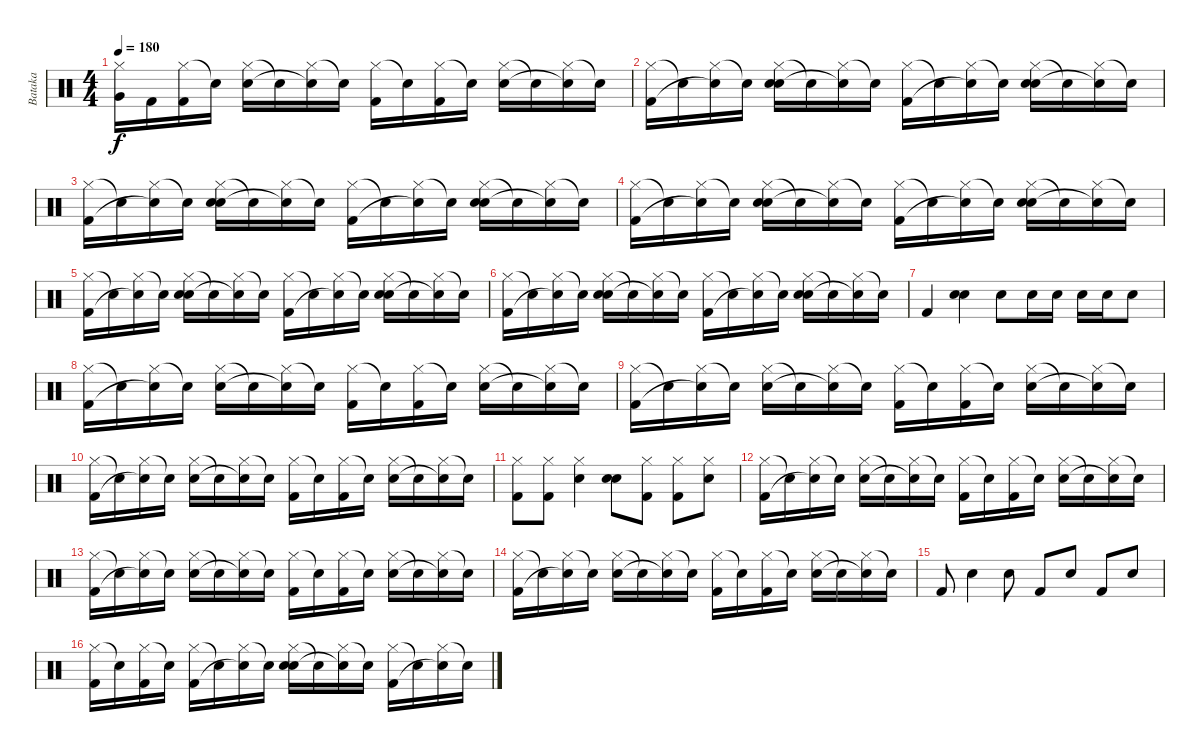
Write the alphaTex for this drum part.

\track ("Bataka" "Bataka") {instrument percussion}
\staff {score}
\articulation defaults
\ts (4 4)
\tempo 180
\clef neutral
\ks c
("Hi-Hat (closed)" "Very Low Tom (hit)").16{dy f} "Kick (hit) 2".16 ("Hi-Hat (closed)" "Kick (hit) 2").16 "Snare (hit)"{t}.16 ("Hi-Hat (closed)" "Electric Snare (hit)").16 "Snare (hit)"{t}.16 ("Hi-Hat (closed)" "Electric Snare (hit)"{t}).16 "Snare (hit)"{t}.16 ("Hi-Hat (closed)" "Kick (hit) 2").16 "Snare (hit)"{t}.16 ("Hi-Hat (closed)" "Kick (hit) 2").16 "Snare (hit)"{t}.16 ("Hi-Hat (closed)" "Electric Snare (hit)").16 "Snare (hit)"{t}.16 ("Hi-Hat (closed)" "Snare (hit)"{t}).16 "Snare (hit)"{t}.16 |
("Hi-Hat (closed)" "Kick (hit) 2").16 "Snare (hit)"{t}.16 ("Hi-Hat (closed)" "Snare (hit)"{t}).16 "Snare (hit)"{t}.16 ("Hi-Hat (closed)" "Electric Snare (hit)" "Snare (hit) 2").16 "Snare (hit)"{t}.16 ("Hi-Hat (closed)" "Snare (hit)"{t}).16 "Snare (hit)"{t}.16 ("Hi-Hat (closed)" "Kick (hit) 2").16 "Snare (hit)"{t}.16 ("Hi-Hat (closed)" "Snare (hit)"{t}).16 "Snare (hit)"{t}.16 ("Hi-Hat (closed)" "Electric Snare (hit)" "Snare (hit) 2").16 "Snare (hit)"{t}.16 ("Hi-Hat (closed)" "Snare (hit)"{t}).16 "Snare (hit)"{t}.16 |
("Hi-Hat (closed)" "Kick (hit) 2").16 "Snare (hit)"{t}.16 ("Hi-Hat (closed)" "Snare (hit)"{t}).16 "Snare (hit)"{t}.16 ("Hi-Hat (closed)" "Electric Snare (hit)" "Snare (hit) 2").16 "Snare (hit)"{t}.16 ("Hi-Hat (closed)" "Snare (hit)"{t}).16 "Snare (hit)"{t}.16 ("Hi-Hat (closed)" "Kick (hit) 2").16 "Snare (hit)"{t}.16 ("Hi-Hat (closed)" "Snare (hit)"{t}).16 "Snare (hit)"{t}.16 ("Hi-Hat (closed)" "Electric Snare (hit)" "Snare (hit) 2").16 "Snare (hit)"{t}.16 ("Hi-Hat (closed)" "Snare (hit)"{t}).16 "Snare (hit)"{t}.16 |
("Hi-Hat (closed)" "Kick (hit) 2").16 "Snare (hit)"{t}.16 ("Hi-Hat (closed)" "Snare (hit)"{t}).16 "Snare (hit)"{t}.16 ("Hi-Hat (closed)" "Electric Snare (hit)" "Snare (hit) 2").16 "Snare (hit)"{t}.16 ("Hi-Hat (closed)" "Snare (hit)"{t}).16 "Snare (hit)"{t}.16 ("Hi-Hat (closed)" "Kick (hit) 2").16 "Snare (hit)"{t}.16 ("Hi-Hat (closed)" "Snare (hit)"{t}).16 "Snare (hit)"{t}.16 ("Hi-Hat (closed)" "Electric Snare (hit)" "Snare (hit) 2").16 "Snare (hit)"{t}.16 ("Hi-Hat (closed)" "Snare (hit)"{t}).16 "Snare (hit)"{t}.16 |
("Hi-Hat (closed)" "Kick (hit) 2").16 "Snare (hit)"{t}.16 ("Hi-Hat (closed)" "Snare (hit)"{t}).16 "Snare (hit)"{t}.16 ("Hi-Hat (closed)" "Electric Snare (hit)" "Snare (hit) 2").16 "Snare (hit)"{t}.16 ("Hi-Hat (closed)" "Snare (hit)"{t}).16 "Snare (hit)"{t}.16 ("Hi-Hat (closed)" "Kick (hit) 2").16 "Snare (hit)"{t}.16 ("Hi-Hat (closed)" "Snare (hit)"{t}).16 "Snare (hit)"{t}.16 ("Hi-Hat (closed)" "Electric Snare (hit)" "Snare (hit) 2").16 "Snare (hit)"{t}.16 ("Hi-Hat (closed)" "Snare (hit)"{t}).16 "Snare (hit)"{t}.16 |
("Hi-Hat (closed)" "Kick (hit) 2").16 "Snare (hit)"{t}.16 ("Hi-Hat (closed)" "Snare (hit)"{t}).16 "Snare (hit)"{t}.16 ("Hi-Hat (closed)" "Electric Snare (hit)" "Snare (hit) 2").16 "Snare (hit)"{t}.16 ("Hi-Hat (closed)" "Snare (hit)"{t}).16 "Snare (hit)"{t}.16 ("Hi-Hat (closed)" "Kick (hit) 2").16 "Snare (hit)"{t}.16 ("Hi-Hat (closed)" "Snare (hit)"{t}).16 "Snare (hit)"{t}.16 ("Hi-Hat (closed)" "Electric Snare (hit)" "Snare (hit) 2").16 "Snare (hit)"{t}.16 ("Hi-Hat (closed)" "Snare (hit)"{t}).16 "Snare (hit)"{t}.16 |
"Kick (hit) 2".4 ("Electric Snare (hit)" "Snare (hit) 2").4 "Electric Snare (hit)".8 "Electric Snare (hit)".16 "Electric Snare (hit)".16 "Electric Snare (hit)".16 "Electric Snare (hit)".16 "Electric Snare (hit)".8 |
("Hi-Hat (closed)" "Kick (hit) 2").16 "Snare (hit)"{t}.16 ("Hi-Hat (closed)" "Snare (hit)"{t}).16 "Snare (hit)"{t}.16 ("Hi-Hat (closed)" "Electric Snare (hit)").16 "Snare (hit)"{t}.16 ("Hi-Hat (closed)" "Snare (hit)"{t}).16 "Snare (hit)"{t}.16 ("Hi-Hat (closed)" "Kick (hit) 2").16 "Snare (hit)"{t}.16 ("Hi-Hat (closed)" "Kick (hit) 2").16 "Snare (hit)"{t}.16 ("Hi-Hat (closed)" "Electric Snare (hit)").16 "Snare (hit)"{t}.16 ("Hi-Hat (closed)" "Snare (hit)"{t}).16 "Snare (hit)"{t}.16 |
("Hi-Hat (closed)" "Kick (hit) 2").16 "Snare (hit)"{t}.16 ("Hi-Hat (closed)" "Snare (hit)"{t}).16 "Snare (hit)"{t}.16 ("Hi-Hat (closed)" "Electric Snare (hit)").16 "Snare (hit)"{t}.16 ("Hi-Hat (closed)" "Snare (hit)"{t}).16 "Snare (hit)"{t}.16 ("Hi-Hat (closed)" "Kick (hit) 2").16 "Snare (hit)"{t}.16 ("Hi-Hat (closed)" "Kick (hit) 2").16 "Snare (hit)"{t}.16 ("Hi-Hat (closed)" "Electric Snare (hit)").16 "Snare (hit)"{t}.16 ("Hi-Hat (closed)" "Snare (hit)"{t}).16 "Snare (hit)"{t}.16 |
("Hi-Hat (closed)" "Kick (hit) 2").16 "Snare (hit)"{t}.16 ("Hi-Hat (closed)" "Snare (hit)"{t}).16 "Snare (hit)"{t}.16 ("Hi-Hat (closed)" "Electric Snare (hit)").16 "Snare (hit)"{t}.16 ("Hi-Hat (closed)" "Snare (hit)"{t}).16 "Snare (hit)"{t}.16 ("Hi-Hat (closed)" "Kick (hit) 2").16 "Snare (hit)"{t}.16 ("Hi-Hat (closed)" "Kick (hit) 2").16 "Snare (hit)"{t}.16 ("Hi-Hat (closed)" "Electric Snare (hit)").16 "Snare (hit)"{t}.16 ("Hi-Hat (closed)" "Snare (hit)"{t}).16 "Snare (hit)"{t}.16 |
("Hi-Hat (closed)" "Kick (hit) 2").8 ("Hi-Hat (closed)" "Kick (hit) 2").8 ("Hi-Hat (closed)" "Electric Snare (hit)").4 ("Electric Snare (hit)" "Snare (hit) 2").8 ("Hi-Hat (closed)" "Kick (hit) 2").8 ("Hi-Hat (closed)" "Kick (hit) 2").8 ("Hi-Hat (closed)" "Electric Snare (hit)").8 |
("Hi-Hat (closed)" "Kick (hit) 2").16 "Snare (hit)"{t}.16 ("Hi-Hat (closed)" "Snare (hit)"{t}).16 "Snare (hit)"{t}.16 ("Hi-Hat (closed)" "Electric Snare (hit)").16 "Snare (hit)"{t}.16 ("Hi-Hat (closed)" "Snare (hit)"{t}).16 "Snare (hit)"{t}.16 ("Hi-Hat (closed)" "Kick (hit) 2").16 "Snare (hit)"{t}.16 ("Hi-Hat (closed)" "Kick (hit) 2").16 "Snare (hit)"{t}.16 ("Hi-Hat (closed)" "Electric Snare (hit)").16 "Snare (hit)"{t}.16 ("Hi-Hat (closed)" "Snare (hit)"{t}).16 "Snare (hit)"{t}.16 |
("Hi-Hat (closed)" "Kick (hit) 2").16 "Snare (hit)"{t}.16 ("Hi-Hat (closed)" "Snare (hit)"{t}).16 "Snare (hit)"{t}.16 ("Hi-Hat (closed)" "Electric Snare (hit)").16 "Snare (hit)"{t}.16 ("Hi-Hat (closed)" "Snare (hit)"{t}).16 "Snare (hit)"{t}.16 ("Hi-Hat (closed)" "Kick (hit) 2").16 "Snare (hit)"{t}.16 ("Hi-Hat (closed)" "Kick (hit) 2").16 "Snare (hit)"{t}.16 ("Hi-Hat (closed)" "Electric Snare (hit)").16 "Snare (hit)"{t}.16 ("Hi-Hat (closed)" "Snare (hit)"{t}).16 "Snare (hit)"{t}.16 |
("Hi-Hat (closed)" "Kick (hit) 2").16 "Snare (hit)"{t}.16 ("Hi-Hat (closed)" "Snare (hit)"{t}).16 "Snare (hit)"{t}.16 ("Hi-Hat (closed)" "Electric Snare (hit)").16 "Snare (hit)"{t}.16 ("Hi-Hat (closed)" "Snare (hit)"{t}).16 "Snare (hit)"{t}.16 ("Hi-Hat (closed)" "Kick (hit) 2").16 "Snare (hit)"{t}.16 ("Hi-Hat (closed)" "Kick (hit) 2").16 "Snare (hit)"{t}.16 ("Hi-Hat (closed)" "Electric Snare (hit)").16 "Snare (hit)"{t}.16 ("Hi-Hat (closed)" "Snare (hit)"{t}).16 "Snare (hit)"{t}.16 |
"Kick (hit) 2".8 "Electric Snare (hit)".4 "Electric Snare (hit)".8 "Kick (hit) 2".8 "Electric Snare (hit)".8 "Kick (hit) 2".8 "Electric Snare (hit)".8 |
("Hi-Hat (closed)" "Kick (hit) 2").16 "Snare (hit)"{t}.16 ("Hi-Hat (closed)" "Kick (hit) 2").16 "Snare (hit)"{t}.16 ("Hi-Hat (closed)" "Kick (hit) 2").16 "Snare (hit)"{t}.16 ("Hi-Hat (closed)" "Snare (hit)"{t}).16 "Snare (hit)"{t}.16 ("Hi-Hat (closed)" "Snare (hit) 2" "Electric Snare (hit)").16 "Snare (hit)"{t}.16 ("Hi-Hat (closed)" "Snare (hit)"{t}).16 "Snare (hit)"{t}.16 ("Hi-Hat (closed)" "Kick (hit) 2").16 "Snare (hit)"{t}.16 ("Hi-Hat (closed)" "Snare (hit)"{t}).16 "Snare (hit)"{t}.16
